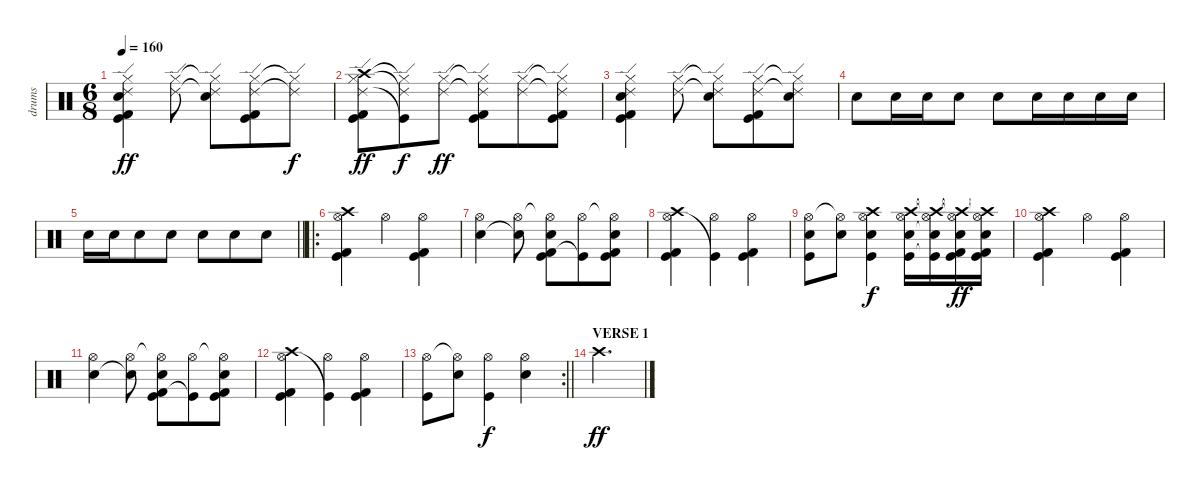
\track ("drums" "drums") {instrument percussion}
\staff {score}
\articulation defaults
\ts (6 8)
\tempo 160
\clef neutral
\ks c
("Hi-Hat (closed)" "Ride (edge) 2" "Snare (hit) 2" "Kick (hit) 2" "Kick (hit)").4{dy ff} ("Hi-Hat (closed)" "Ride (edge) 2").8 ("Hi-Hat (closed)"{t} "Ride (edge) 2"{t} "Electric Snare (hit)").8 ("Hi-Hat (closed)" "Ride (edge) 2" "Kick (hit) 2" "Kick (hit)").8 ("Hi-Hat (closed)"{t} "Ride (edge) 2"{t}).8{dy f} |
("Crash high (hit)" "Hi-Hat (closed)" "Ride (edge) 2" "Kick (hit) 2" "Kick (hit)").8{dy ff} ("Hi-Hat (closed)"{t} "Ride (edge) 2"{t} "Kick (hit)"{t}).8{dy f} ("Hi-Hat (closed)" "Ride (edge) 2").8{dy ff} ("Hi-Hat (closed)"{t} "Ride (edge) 2"{t} "Kick (hit) 2" "Kick (hit)").8 ("Hi-Hat (closed)" "Ride (edge) 2").8 ("Hi-Hat (closed)"{t} "Ride (edge) 2"{t} "Kick (hit) 2" "Kick (hit)").8 |
("Hi-Hat (closed)" "Ride (edge) 2" "Snare (hit) 2" "Kick (hit) 2" "Kick (hit)").4 ("Hi-Hat (closed)" "Ride (edge) 2").8 ("Hi-Hat (closed)"{t} "Ride (edge) 2"{t} "Electric Snare (hit)").8 ("Hi-Hat (closed)" "Ride (edge) 2" "Kick (hit) 2" "Kick (hit)").8 ("Hi-Hat (closed)"{t} "Ride (edge) 2"{t} "Electric Snare (hit)").8 |
"Snare (hit) 2".8 "Snare (hit) 2".16 "Snare (hit) 2".16 "Snare (hit) 2".8 "Snare (hit) 2".8 "Snare (hit) 2".16 "Snare (hit) 2".16 "Snare (hit) 2".16 "Snare (hit) 2".16 |
\barLineRight lightlight "Snare (hit) 2".16 "Snare (hit) 2".16 "Snare (hit) 2".8 "Snare (hit) 2".8 "Snare (hit) 2".8 "Snare (hit) 2".8 "Snare (hit) 2".8
|
\ro
("Crash high (hit)" "Hi-Hat (open)" "Kick (hit) 2" "Kick (hit)").4 "Hi-Hat (open)".4 ("Hi-Hat (open)" "Kick (hit) 2" "Kick (hit)").4 |
("Hi-Hat (open)" "Electric Snare (hit)").4 ("Hi-Hat (open)" "Electric Snare (hit)"{t}).8 ("Hi-Hat (open)"{t} "Kick (hit) 2" "Electric Snare (hit)" "Kick (hit)").8 ("Hi-Hat (open)" "Kick (hit)"{t}).8 ("Hi-Hat (open)"{t} "Kick (hit) 2" "Electric Snare (hit)" "Kick (hit)").8 |
("Crash high (hit)" "Hi-Hat (open)" "Kick (hit) 2" "Kick (hit)").4 ("Hi-Hat (open)" "Kick (hit)"{t}).4 ("Hi-Hat (open)" "Kick (hit) 2" "Kick (hit)").4 |
("Hi-Hat (open)" "Electric Snare (hit)" "Kick (hit)").8 ("Hi-Hat (open)"{t} "Electric Snare (hit)").8 ("Crash high (hit)" "Hi-Hat (open)" "Electric Snare (hit)" "Kick (hit)").4{dy f} ("Crash high (hit)" "Hi-Hat (open)" "Electric Snare (hit)" "Kick (hit)").16 ("Crash high (hit)"{t} "Hi-Hat (open)"{t} "Electric Snare (hit)"{t} "Kick (hit)"{t}).16 ("Crash high (hit)"{t} "Hi-Hat (open)"{t} "Electric Snare (hit)" "Kick (hit) 2" "Kick (hit)").16{dy ff} ("Crash high (hit)"{t} "Hi-Hat (open)"{t} "Electric Snare (hit)" "Kick (hit) 2" "Kick (hit)").16 |
("Crash high (hit)" "Hi-Hat (open)" "Kick (hit) 2" "Kick (hit)").4 "Hi-Hat (open)".4 ("Hi-Hat (open)" "Kick (hit) 2" "Kick (hit)").4 |
("Hi-Hat (open)" "Electric Snare (hit)").4 ("Hi-Hat (open)" "Electric Snare (hit)"{t}).8 ("Hi-Hat (open)"{t} "Kick (hit) 2" "Electric Snare (hit)" "Kick (hit)").8 ("Hi-Hat (open)" "Kick (hit)"{t}).8 ("Hi-Hat (open)"{t} "Kick (hit) 2" "Electric Snare (hit)" "Kick (hit)").8 |
("Crash high (hit)" "Hi-Hat (open)" "Kick (hit) 2" "Kick (hit)").4 ("Hi-Hat (open)" "Kick (hit)"{t}).4 ("Hi-Hat (open)" "Kick (hit) 2" "Kick (hit)").4 |
\rc 2
\barLineRight lightlight
("Hi-Hat (open)" "Kick (hit)").8 ("Hi-Hat (open)"{t} "Electric Snare (hit)").8 ("Hi-Hat (open)" "Kick (hit)").4{dy f} ("Hi-Hat (open)" "Electric Snare (hit)").4 |
\section ("" "VERSE 1")
"Crash high (hit)".2{d dy ff}
